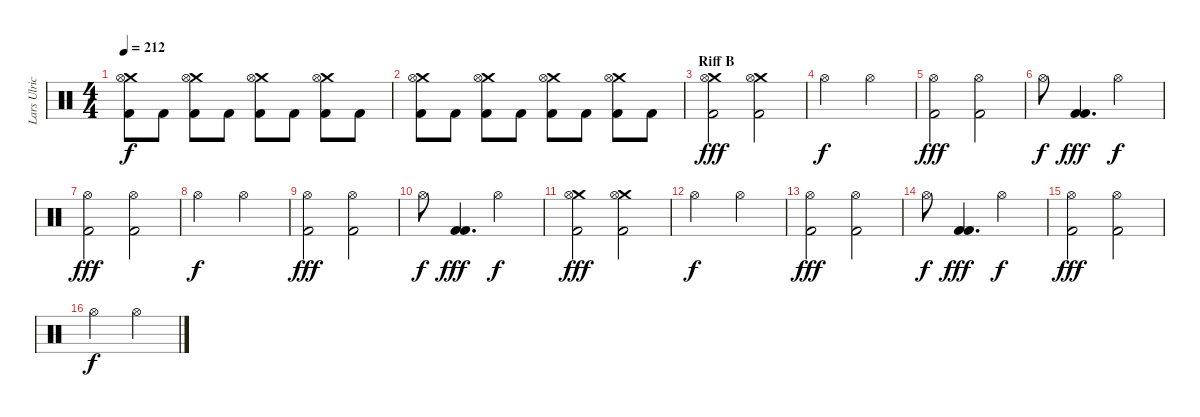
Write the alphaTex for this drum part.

\track ("Lars Ulrich" "Lars Ulric") {instrument percussion}
\staff {score}
\articulation defaults
\ts (4 4)
\tempo 212
\clef neutral
\ks c
("Crash medium (hit)" "Hi-Hat (open)" "Kick (hit) 2").8{dy f} "Kick (hit) 2".8 ("Crash medium (hit)" "Hi-Hat (open)" "Kick (hit) 2").8 "Kick (hit) 2".8 ("Crash medium (hit)" "Hi-Hat (open)" "Kick (hit) 2").8 "Kick (hit) 2".8 ("Crash medium (hit)" "Hi-Hat (open)" "Kick (hit) 2").8 "Kick (hit) 2".8 |
("Crash medium (hit)" "Hi-Hat (open)" "Kick (hit) 2").8 "Kick (hit) 2".8 ("Crash medium (hit)" "Hi-Hat (open)" "Kick (hit) 2").8 "Kick (hit) 2".8 ("Crash medium (hit)" "Hi-Hat (open)" "Kick (hit) 2").8 "Kick (hit) 2".8 ("Crash medium (hit)" "Hi-Hat (open)" "Kick (hit) 2").8 "Kick (hit) 2".8 |
\section ("" "Riff B")
("Crash medium (hit)" "Hi-Hat (open)" "Kick (hit) 2").2{dy fff} ("Crash medium (hit)" "Hi-Hat (open)" "Kick (hit) 2").2 |
"Hi-Hat (open)".2{dy f} "Hi-Hat (open)".2 |
("Hi-Hat (open)" "Kick (hit) 2").2{dy fff} ("Hi-Hat (open)" "Kick (hit) 2").2 |
"Hi-Hat (open)".8{dy f} ("Kick (hit) 2" "Kick (hit) 2").4{d dy fff} "Hi-Hat (open)".2{dy f} |
("Hi-Hat (open)" "Kick (hit) 2").2{dy fff} ("Hi-Hat (open)" "Kick (hit) 2").2 |
"Hi-Hat (open)".2{dy f} "Hi-Hat (open)".2 |
("Hi-Hat (open)" "Kick (hit) 2").2{dy fff} ("Hi-Hat (open)" "Kick (hit) 2").2 |
"Hi-Hat (open)".8{dy f} ("Kick (hit) 2" "Kick (hit) 2").4{d dy fff} "Hi-Hat (open)".2{dy f} |
("Crash medium (hit)" "Hi-Hat (open)" "Kick (hit) 2").2{dy fff} ("Crash medium (hit)" "Hi-Hat (open)" "Kick (hit) 2").2 |
"Hi-Hat (open)".2{dy f} "Hi-Hat (open)".2 |
("Hi-Hat (open)" "Kick (hit) 2").2{dy fff} ("Hi-Hat (open)" "Kick (hit) 2").2 |
"Hi-Hat (open)".8{dy f} ("Kick (hit) 2" "Kick (hit) 2").4{d dy fff} "Hi-Hat (open)".2{dy f} |
("Hi-Hat (open)" "Kick (hit) 2").2{dy fff} ("Hi-Hat (open)" "Kick (hit) 2").2 |
"Hi-Hat (open)".2{dy f} "Hi-Hat (open)".2
